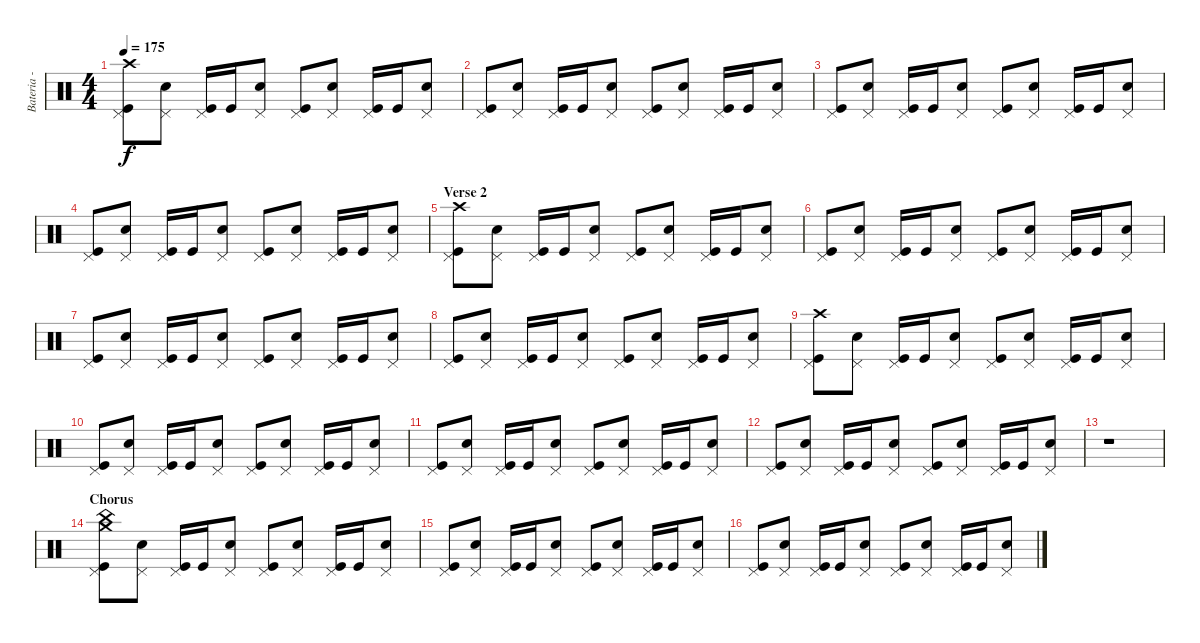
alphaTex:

\track ("Bateria - Larzon" "Bateria - ") {instrument percussion}
\staff {score}
\articulation defaults
\ts (4 4)
\tempo 175
\clef neutral
\ks c
("Crash high (hit)" "Kick (hit)" "Pedal Hi-Hat (hit)").8{dy f} ("Snare (hit) 2" "Pedal Hi-Hat (hit)").8 ("Kick (hit)" "Pedal Hi-Hat (hit)").16 "Kick (hit)".16 ("Snare (hit) 2" "Pedal Hi-Hat (hit)").8 ("Kick (hit)" "Pedal Hi-Hat (hit)").8 ("Snare (hit) 2" "Pedal Hi-Hat (hit)").8 ("Kick (hit)" "Pedal Hi-Hat (hit)").16 "Kick (hit)".16 ("Snare (hit) 2" "Pedal Hi-Hat (hit)").8 |
("Kick (hit)" "Pedal Hi-Hat (hit)").8 ("Snare (hit) 2" "Pedal Hi-Hat (hit)").8 ("Kick (hit)" "Pedal Hi-Hat (hit)").16 "Kick (hit)".16 ("Snare (hit) 2" "Pedal Hi-Hat (hit)").8 ("Kick (hit)" "Pedal Hi-Hat (hit)").8 ("Snare (hit) 2" "Pedal Hi-Hat (hit)").8 ("Kick (hit)" "Pedal Hi-Hat (hit)").16 "Kick (hit)".16 ("Snare (hit) 2" "Pedal Hi-Hat (hit)").8 |
("Kick (hit)" "Pedal Hi-Hat (hit)").8 ("Snare (hit) 2" "Pedal Hi-Hat (hit)").8 ("Kick (hit)" "Pedal Hi-Hat (hit)").16 "Kick (hit)".16 ("Snare (hit) 2" "Pedal Hi-Hat (hit)").8 ("Kick (hit)" "Pedal Hi-Hat (hit)").8 ("Snare (hit) 2" "Pedal Hi-Hat (hit)").8 ("Kick (hit)" "Pedal Hi-Hat (hit)").16 "Kick (hit)".16 ("Snare (hit) 2" "Pedal Hi-Hat (hit)").8 |
("Kick (hit)" "Pedal Hi-Hat (hit)").8 ("Snare (hit) 2" "Pedal Hi-Hat (hit)").8 ("Kick (hit)" "Pedal Hi-Hat (hit)").16 "Kick (hit)".16 ("Snare (hit) 2" "Pedal Hi-Hat (hit)").8 ("Kick (hit)" "Pedal Hi-Hat (hit)").8 ("Snare (hit) 2" "Pedal Hi-Hat (hit)").8 ("Kick (hit)" "Pedal Hi-Hat (hit)").16 "Kick (hit)".16 ("Snare (hit) 2" "Pedal Hi-Hat (hit)").8 |
\section ("" "Verse 2")
("Crash high (hit)" "Kick (hit)" "Pedal Hi-Hat (hit)").8 ("Snare (hit) 2" "Pedal Hi-Hat (hit)").8 ("Kick (hit)" "Pedal Hi-Hat (hit)").16 "Kick (hit)".16 ("Snare (hit) 2" "Pedal Hi-Hat (hit)").8 ("Kick (hit)" "Pedal Hi-Hat (hit)").8 ("Snare (hit) 2" "Pedal Hi-Hat (hit)").8 ("Kick (hit)" "Pedal Hi-Hat (hit)").16 "Kick (hit)".16 ("Snare (hit) 2" "Pedal Hi-Hat (hit)").8 |
("Kick (hit)" "Pedal Hi-Hat (hit)").8 ("Snare (hit) 2" "Pedal Hi-Hat (hit)").8 ("Kick (hit)" "Pedal Hi-Hat (hit)").16 "Kick (hit)".16 ("Snare (hit) 2" "Pedal Hi-Hat (hit)").8 ("Kick (hit)" "Pedal Hi-Hat (hit)").8 ("Snare (hit) 2" "Pedal Hi-Hat (hit)").8 ("Kick (hit)" "Pedal Hi-Hat (hit)").16 "Kick (hit)".16 ("Snare (hit) 2" "Pedal Hi-Hat (hit)").8 |
("Kick (hit)" "Pedal Hi-Hat (hit)").8 ("Snare (hit) 2" "Pedal Hi-Hat (hit)").8 ("Kick (hit)" "Pedal Hi-Hat (hit)").16 "Kick (hit)".16 ("Snare (hit) 2" "Pedal Hi-Hat (hit)").8 ("Kick (hit)" "Pedal Hi-Hat (hit)").8 ("Snare (hit) 2" "Pedal Hi-Hat (hit)").8 ("Kick (hit)" "Pedal Hi-Hat (hit)").16 "Kick (hit)".16 ("Snare (hit) 2" "Pedal Hi-Hat (hit)").8 |
("Kick (hit)" "Pedal Hi-Hat (hit)").8 ("Snare (hit) 2" "Pedal Hi-Hat (hit)").8 ("Kick (hit)" "Pedal Hi-Hat (hit)").16 "Kick (hit)".16 ("Snare (hit) 2" "Pedal Hi-Hat (hit)").8 ("Kick (hit)" "Pedal Hi-Hat (hit)").8 ("Snare (hit) 2" "Pedal Hi-Hat (hit)").8 ("Kick (hit)" "Pedal Hi-Hat (hit)").16 "Kick (hit)".16 ("Snare (hit) 2" "Pedal Hi-Hat (hit)").8 |
("Crash high (hit)" "Kick (hit)" "Pedal Hi-Hat (hit)").8 ("Snare (hit) 2" "Pedal Hi-Hat (hit)").8 ("Kick (hit)" "Pedal Hi-Hat (hit)").16 "Kick (hit)".16 ("Snare (hit) 2" "Pedal Hi-Hat (hit)").8 ("Kick (hit)" "Pedal Hi-Hat (hit)").8 ("Snare (hit) 2" "Pedal Hi-Hat (hit)").8 ("Kick (hit)" "Pedal Hi-Hat (hit)").16 "Kick (hit)".16 ("Snare (hit) 2" "Pedal Hi-Hat (hit)").8 |
("Kick (hit)" "Pedal Hi-Hat (hit)").8 ("Snare (hit) 2" "Pedal Hi-Hat (hit)").8 ("Kick (hit)" "Pedal Hi-Hat (hit)").16 "Kick (hit)".16 ("Snare (hit) 2" "Pedal Hi-Hat (hit)").8 ("Kick (hit)" "Pedal Hi-Hat (hit)").8 ("Snare (hit) 2" "Pedal Hi-Hat (hit)").8 ("Kick (hit)" "Pedal Hi-Hat (hit)").16 "Kick (hit)".16 ("Snare (hit) 2" "Pedal Hi-Hat (hit)").8 |
("Kick (hit)" "Pedal Hi-Hat (hit)").8 ("Snare (hit) 2" "Pedal Hi-Hat (hit)").8 ("Kick (hit)" "Pedal Hi-Hat (hit)").16 "Kick (hit)".16 ("Snare (hit) 2" "Pedal Hi-Hat (hit)").8 ("Kick (hit)" "Pedal Hi-Hat (hit)").8 ("Snare (hit) 2" "Pedal Hi-Hat (hit)").8 ("Kick (hit)" "Pedal Hi-Hat (hit)").16 "Kick (hit)".16 ("Snare (hit) 2" "Pedal Hi-Hat (hit)").8 |
("Kick (hit)" "Pedal Hi-Hat (hit)").8 ("Snare (hit) 2" "Pedal Hi-Hat (hit)").8 ("Kick (hit)" "Pedal Hi-Hat (hit)").16 "Kick (hit)".16 ("Snare (hit) 2" "Pedal Hi-Hat (hit)").8 ("Kick (hit)" "Pedal Hi-Hat (hit)").8 ("Snare (hit) 2" "Pedal Hi-Hat (hit)").8 ("Kick (hit)" "Pedal Hi-Hat (hit)").16 "Kick (hit)".16 ("Snare (hit) 2" "Pedal Hi-Hat (hit)").8 |
r.1 |
\section ("" "Chorus")
("Kick (hit)" "Pedal Hi-Hat (hit)" "Crash medium (hit)" "China (hit)").8 ("Snare (hit) 2" "Pedal Hi-Hat (hit)").8 ("Kick (hit)" "Pedal Hi-Hat (hit)").16 "Kick (hit)".16 ("Snare (hit) 2" "Pedal Hi-Hat (hit)").8 ("Pedal Hi-Hat (hit)" "Kick (hit)").8 ("Snare (hit) 2" "Pedal Hi-Hat (hit)").8 ("Kick (hit)" "Pedal Hi-Hat (hit)").16 "Kick (hit)".16 ("Snare (hit) 2" "Pedal Hi-Hat (hit)").8 |
("Pedal Hi-Hat (hit)" "Kick (hit)").8 ("Snare (hit) 2" "Pedal Hi-Hat (hit)").8 ("Kick (hit)" "Pedal Hi-Hat (hit)").16 "Kick (hit)".16 ("Snare (hit) 2" "Pedal Hi-Hat (hit)").8 ("Kick (hit)" "Pedal Hi-Hat (hit)").8 ("Snare (hit) 2" "Pedal Hi-Hat (hit)").8 ("Kick (hit)" "Pedal Hi-Hat (hit)").16 "Kick (hit)".16 ("Snare (hit) 2" "Pedal Hi-Hat (hit)").8 |
("Pedal Hi-Hat (hit)" "Kick (hit)").8 ("Snare (hit) 2" "Pedal Hi-Hat (hit)").8 ("Kick (hit)" "Pedal Hi-Hat (hit)").16 "Kick (hit)".16 ("Snare (hit) 2" "Pedal Hi-Hat (hit)").8 ("Kick (hit)" "Pedal Hi-Hat (hit)").8 ("Snare (hit) 2" "Pedal Hi-Hat (hit)").8 ("Kick (hit)" "Pedal Hi-Hat (hit)").16 "Kick (hit)".16 ("Snare (hit) 2" "Pedal Hi-Hat (hit)").8
